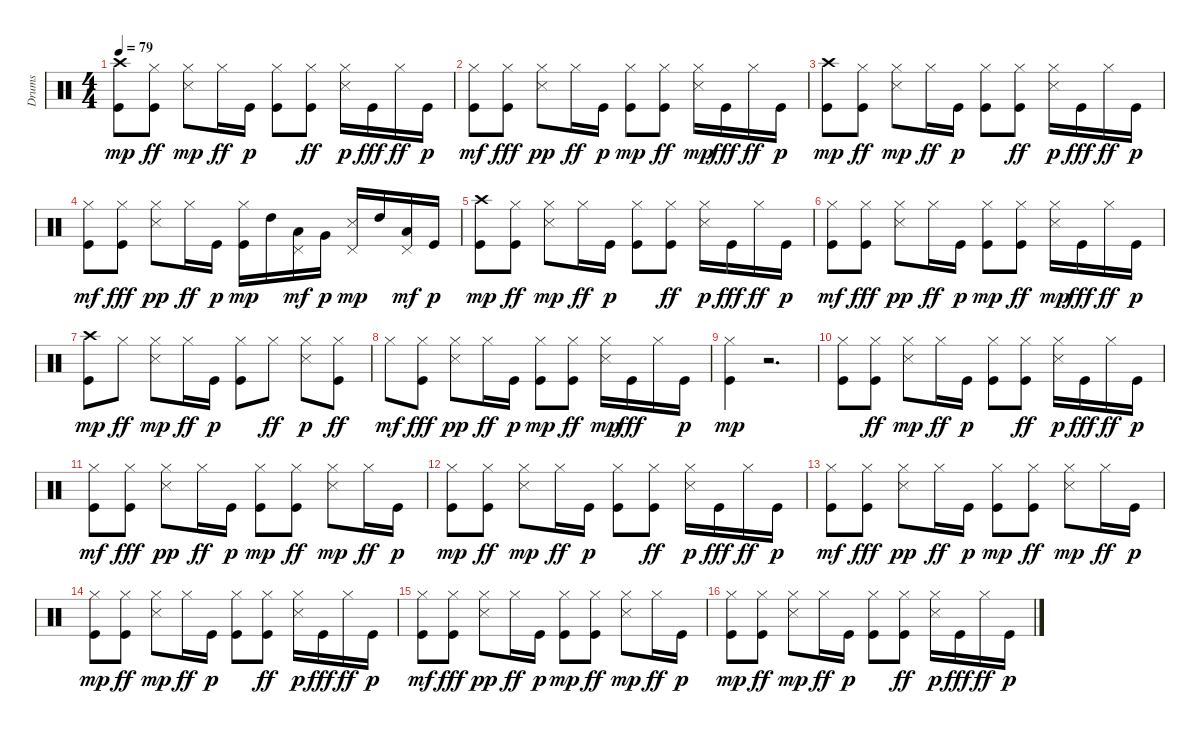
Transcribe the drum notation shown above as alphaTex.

\track ("Drums" "Drums") {instrument percussion}
\staff {score}
\articulation defaults
\ts (4 4)
\tempo 79
\clef neutral
\ks c
("Kick (hit)" "Crash high (hit)").8{dy mp} ("Kick (hit)" "Hi-Hat (closed)").8{dy ff} ("Snare (side stick) 3" "Hi-Hat (closed)").8{dy mp} "Hi-Hat (closed)".16{dy ff} "Kick (hit)".16{dy p} ("Kick (hit)" "Hi-Hat (closed)").8 ("Kick (hit)" "Hi-Hat (closed)").8{dy ff} ("Snare (side stick) 3" "Hi-Hat (closed)").16{dy p} "Kick (hit)".16{dy fff} "Hi-Hat (closed)".16{dy ff} "Kick (hit)".16{dy p} |
("Kick (hit)" "Hi-Hat (closed)").8{dy mf} ("Kick (hit)" "Hi-Hat (closed)").8{dy fff} ("Snare (side stick) 3" "Hi-Hat (closed)").8{dy pp} "Hi-Hat (closed)".16{dy ff} "Kick (hit)".16{dy p} ("Kick (hit)" "Hi-Hat (closed)").8{dy mp} ("Kick (hit)" "Hi-Hat (closed)").8{dy ff} ("Snare (side stick) 3" "Hi-Hat (closed)").16{dy mp} "Kick (hit)".16{dy fff} "Hi-Hat (closed)".16{dy ff} "Kick (hit)".16{dy p} |
("Kick (hit)" "Crash high (hit)").8{dy mp} ("Kick (hit)" "Hi-Hat (closed)").8{dy ff} ("Snare (side stick) 3" "Hi-Hat (closed)").8{dy mp} "Hi-Hat (closed)".16{dy ff} "Kick (hit)".16{dy p} ("Kick (hit)" "Hi-Hat (closed)").8 ("Kick (hit)" "Hi-Hat (closed)").8{dy ff} ("Snare (side stick) 3" "Hi-Hat (closed)").16{dy p} "Kick (hit)".16{dy fff} "Hi-Hat (closed)".16{dy ff} "Kick (hit)".16{dy p} |
("Kick (hit)" "Hi-Hat (closed)").8{dy mf} ("Kick (hit)" "Hi-Hat (closed)").8{dy fff} ("Snare (side stick) 3" "Hi-Hat (closed)").8{dy pp} "Hi-Hat (closed)".16{dy ff} "Kick (hit)".16{dy p} ("Kick (hit)" "Hi-Hat (closed)").16{dy mp} "High Tom (hit)".16 ("Pedal Hi-Hat (hit)" "Low Tom (hit)").16{dy mf} "Very Low Tom (hit)".16{dy p} ("Snare (side stick) 3" "Pedal Hi-Hat (hit)").16{dy mp} "High Tom (hit)".16 ("Pedal Hi-Hat (hit)" "Low Tom (hit)").16{dy mf} "Kick (hit)".16{dy p} |
("Kick (hit)" "Crash high (hit)").8{dy mp} ("Kick (hit)" "Hi-Hat (closed)").8{dy ff} ("Snare (side stick) 3" "Hi-Hat (closed)").8{dy mp} "Hi-Hat (closed)".16{dy ff} "Kick (hit)".16{dy p} ("Kick (hit)" "Hi-Hat (closed)").8 ("Kick (hit)" "Hi-Hat (closed)").8{dy ff} ("Snare (side stick) 3" "Hi-Hat (closed)").16{dy p} "Kick (hit)".16{dy fff} "Hi-Hat (closed)".16{dy ff} "Kick (hit)".16{dy p} |
("Kick (hit)" "Hi-Hat (closed)").8{dy mf} ("Kick (hit)" "Hi-Hat (closed)").8{dy fff} ("Snare (side stick) 3" "Hi-Hat (closed)").8{dy pp} "Hi-Hat (closed)".16{dy ff} "Kick (hit)".16{dy p} ("Kick (hit)" "Hi-Hat (closed)").8{dy mp} ("Kick (hit)" "Hi-Hat (closed)").8{dy ff} ("Snare (side stick) 3" "Hi-Hat (closed)").16{dy mp} "Kick (hit)".16{dy fff} "Hi-Hat (closed)".16{dy ff} "Kick (hit)".16{dy p} |
("Kick (hit)" "Crash high (hit)").8{dy mp} "Hi-Hat (closed)".8{dy ff} ("Snare (side stick) 3" "Hi-Hat (closed)").8{dy mp} "Hi-Hat (closed)".16{dy ff} "Kick (hit)".16{dy p} ("Kick (hit)" "Hi-Hat (closed)").8 "Hi-Hat (closed)".8{dy ff} ("Snare (side stick) 3" "Hi-Hat (closed)").8{dy p} ("Kick (hit)" "Hi-Hat (closed)").8{dy ff} |
"Hi-Hat (closed)".8{dy mf} ("Kick (hit)" "Hi-Hat (closed)").8{dy fff} ("Snare (side stick) 3" "Hi-Hat (closed)").8{dy pp} "Hi-Hat (closed)".16{dy ff} "Kick (hit)".16{dy p} ("Kick (hit)" "Hi-Hat (closed)").8{dy mp} ("Kick (hit)" "Hi-Hat (closed)").8{dy ff} ("Snare (side stick) 3" "Hi-Hat (closed)").16{dy mp} "Kick (hit)".16{dy fff} "Hi-Hat (closed)".16 "Kick (hit)".16{dy p} |
("Kick (hit)" "Hi-Hat (closed)").4{dy mp} r.2{d} |
("Kick (hit)" "Hi-Hat (closed)").8 ("Kick (hit)" "Hi-Hat (closed)").8{dy ff} ("Snare (side stick) 3" "Hi-Hat (closed)").8{dy mp} "Hi-Hat (closed)".16{dy ff} "Kick (hit)".16{dy p} ("Kick (hit)" "Hi-Hat (closed)").8 ("Kick (hit)" "Hi-Hat (closed)").8{dy ff} ("Snare (side stick) 3" "Hi-Hat (closed)").16{dy p} "Kick (hit)".16{dy fff} "Hi-Hat (closed)".16{dy ff} "Kick (hit)".16{dy p} |
("Kick (hit)" "Hi-Hat (closed)").8{dy mf} ("Kick (hit)" "Hi-Hat (closed)").8{dy fff} ("Snare (side stick) 3" "Hi-Hat (closed)").8{dy pp} "Hi-Hat (closed)".16{dy ff} "Kick (hit)".16{dy p} ("Kick (hit)" "Hi-Hat (closed)").8{dy mp} ("Kick (hit)" "Hi-Hat (closed)").8{dy ff} ("Snare (side stick) 3" "Hi-Hat (closed)").8{dy mp} "Hi-Hat (closed)".16{dy ff} "Kick (hit)".16{dy p} |
("Kick (hit)" "Hi-Hat (closed)").8{dy mp} ("Kick (hit)" "Hi-Hat (closed)").8{dy ff} ("Snare (side stick) 3" "Hi-Hat (closed)").8{dy mp} "Hi-Hat (closed)".16{dy ff} "Kick (hit)".16{dy p} ("Kick (hit)" "Hi-Hat (closed)").8 ("Kick (hit)" "Hi-Hat (closed)").8{dy ff} ("Snare (side stick) 3" "Hi-Hat (closed)").16{dy p} "Kick (hit)".16{dy fff} "Hi-Hat (closed)".16{dy ff} "Kick (hit)".16{dy p} |
("Kick (hit)" "Hi-Hat (closed)").8{dy mf} ("Kick (hit)" "Hi-Hat (closed)").8{dy fff} ("Snare (side stick) 3" "Hi-Hat (closed)").8{dy pp} "Hi-Hat (closed)".16{dy ff} "Kick (hit)".16{dy p} ("Kick (hit)" "Hi-Hat (closed)").8{dy mp} ("Kick (hit)" "Hi-Hat (closed)").8{dy ff} ("Snare (side stick) 3" "Hi-Hat (closed)").8{dy mp} "Hi-Hat (closed)".16{dy ff} "Kick (hit)".16{dy p} |
("Kick (hit)" "Hi-Hat (closed)").8{dy mp} ("Kick (hit)" "Hi-Hat (closed)").8{dy ff} ("Snare (side stick) 3" "Hi-Hat (closed)").8{dy mp} "Hi-Hat (closed)".16{dy ff} "Kick (hit)".16{dy p} ("Kick (hit)" "Hi-Hat (closed)").8 ("Kick (hit)" "Hi-Hat (closed)").8{dy ff} ("Snare (side stick) 3" "Hi-Hat (closed)").16{dy p} "Kick (hit)".16{dy fff} "Hi-Hat (closed)".16{dy ff} "Kick (hit)".16{dy p} |
("Kick (hit)" "Hi-Hat (closed)").8{dy mf} ("Kick (hit)" "Hi-Hat (closed)").8{dy fff} ("Snare (side stick) 3" "Hi-Hat (closed)").8{dy pp} "Hi-Hat (closed)".16{dy ff} "Kick (hit)".16{dy p} ("Kick (hit)" "Hi-Hat (closed)").8{dy mp} ("Kick (hit)" "Hi-Hat (closed)").8{dy ff} ("Snare (side stick) 3" "Hi-Hat (closed)").8{dy mp} "Hi-Hat (closed)".16{dy ff} "Kick (hit)".16{dy p} |
("Kick (hit)" "Hi-Hat (closed)").8{dy mp} ("Kick (hit)" "Hi-Hat (closed)").8{dy ff} ("Snare (side stick) 3" "Hi-Hat (closed)").8{dy mp} "Hi-Hat (closed)".16{dy ff} "Kick (hit)".16{dy p} ("Kick (hit)" "Hi-Hat (closed)").8 ("Kick (hit)" "Hi-Hat (closed)").8{dy ff} ("Snare (side stick) 3" "Hi-Hat (closed)").16{dy p} "Kick (hit)".16{dy fff} "Hi-Hat (closed)".16{dy ff} "Kick (hit)".16{dy p}
